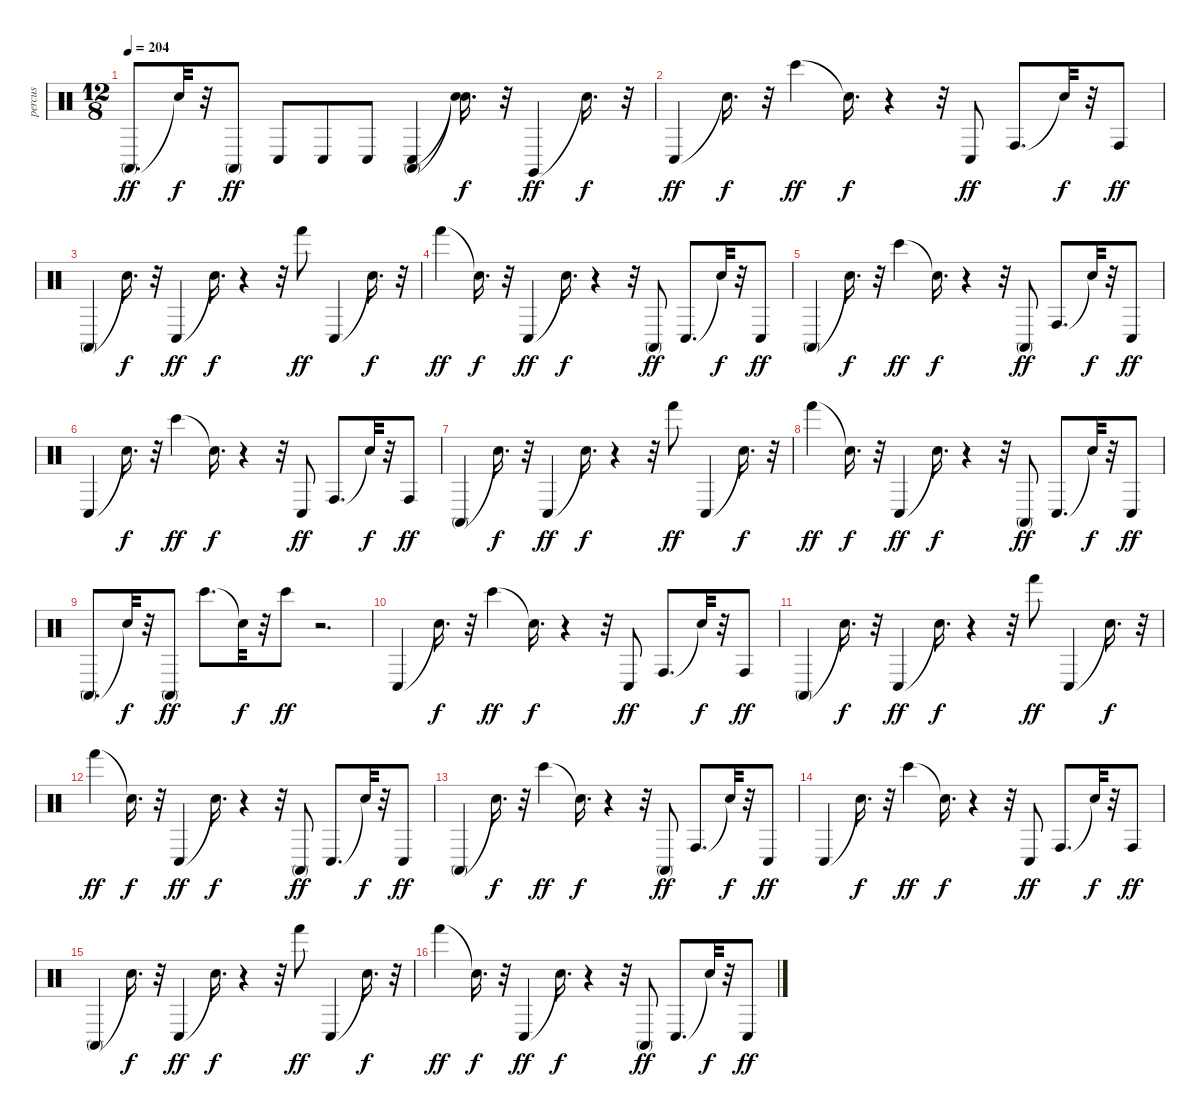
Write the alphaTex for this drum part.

\track ("percus" "percus") {instrument percussion}
\staff {score}
\articulation defaults
\ts (12 8)
\tempo 204
\clef neutral
\ks c "Conga high (mute)".8{d dy ff} "Snare (hit)"{t}.32{dy f}
r.32 "Conga high (mute)".8{dy ff} "Conga low (hit)".8 "Conga low (hit)".8 "Conga low (hit)".8 ("Conga high (mute)" "Conga low (hit)").4 ("Snare (hit)"{t} "Snare (hit)"{t}).16{d dy f} r.32 "Claves (hit)".4{dy ff} "Snare (hit)"{t}.16{d dy f} r.32 |
"Conga low (hit)".4{dy ff} "Snare (hit)"{t}.16{d dy f} r.32 "Bongo High (hit)".4{dy ff} "Snare (hit)"{t}.16{d dy f} r.4 r.32 "Conga low (hit)".8{dy ff} "Conga high (hit)".8{d} "Snare (hit)"{t}.32{dy f} r.32 "Conga high (hit)".8{dy ff} |
"Conga high (mute)".4 "Snare (hit)"{t}.16{d dy f} r.32 "Conga low (hit)".4{dy ff} "Snare (hit)"{t}.16{d dy f} r.4 r.32 "Hand (hit)".8{dy ff} "Conga low (hit)".4 "Snare (hit)"{t}.16{d dy f} r.32 |
"Hand (hit)".4{dy ff} "Snare (hit)"{t}.16{d dy f} r.32 "Conga low (hit)".4{dy ff} "Snare (hit)"{t}.16{d dy f} r.4 r.32 "Conga high (mute)".8{dy ff} "Conga low (hit)".8{d} "Snare (hit)"{t}.32{dy f} r.32 "Conga low (hit)".8{dy ff} |
"Conga high (mute)".4 "Snare (hit)"{t}.16{d dy f} r.32 "Bongo High (hit)".4{dy ff} "Snare (hit)"{t}.16{d dy f} r.4 r.32 "Conga high (mute)".8{dy ff} "Conga high (hit)".8{d} "Snare (hit)"{t}.32{dy f} r.32 "Conga low (hit)".8{dy ff} |
"Conga low (hit)".4 "Snare (hit)"{t}.16{d dy f} r.32 "Bongo High (hit)".4{dy ff} "Snare (hit)"{t}.16{d dy f} r.4 r.32 "Conga low (hit)".8{dy ff} "Conga high (hit)".8{d} "Snare (hit)"{t}.32{dy f} r.32 "Conga high (hit)".8{dy ff} |
"Conga high (mute)".4 "Snare (hit)"{t}.16{d dy f} r.32 "Conga low (hit)".4{dy ff} "Snare (hit)"{t}.16{d dy f} r.4 r.32 "Hand (hit)".8{dy ff} "Conga low (hit)".4 "Snare (hit)"{t}.16{d dy f} r.32 |
"Hand (hit)".4{dy ff} "Snare (hit)"{t}.16{d dy f} r.32 "Conga low (hit)".4{dy ff} "Snare (hit)"{t}.16{d dy f} r.4 r.32 "Conga high (mute)".8{dy ff} "Conga low (hit)".8{d} "Snare (hit)"{t}.32{dy f} r.32 "Conga low (hit)".8{dy ff} |
"Conga high (mute)".8{d} "Snare (hit)"{t}.32{dy f} r.32 "Conga high (mute)".8{dy ff} "Bongo High (hit)".8{d} "Snare (hit)"{t}.32{dy f} r.32 "Bongo High (hit)".8{dy ff} r.2{d} |
"Conga low (hit)".4 "Snare (hit)"{t}.16{d dy f} r.32 "Bongo High (hit)".4{dy ff} "Snare (hit)"{t}.16{d dy f} r.4 r.32 "Conga low (hit)".8{dy ff} "Conga high (hit)".8{d} "Snare (hit)"{t}.32{dy f} r.32 "Conga high (hit)".8{dy ff} |
"Conga high (mute)".4 "Snare (hit)"{t}.16{d dy f} r.32 "Conga low (hit)".4{dy ff} "Snare (hit)"{t}.16{d dy f} r.4 r.32 "Hand (hit)".8{dy ff} "Conga low (hit)".4 "Snare (hit)"{t}.16{d dy f} r.32 |
"Hand (hit)".4{dy ff} "Snare (hit)"{t}.16{d dy f} r.32 "Conga low (hit)".4{dy ff} "Snare (hit)"{t}.16{d dy f} r.4 r.32 "Conga high (mute)".8{dy ff} "Conga low (hit)".8{d} "Snare (hit)"{t}.32{dy f} r.32 "Conga low (hit)".8{dy ff} |
"Conga high (mute)".4 "Snare (hit)"{t}.16{d dy f} r.32 "Bongo High (hit)".4{dy ff} "Snare (hit)"{t}.16{d dy f} r.4 r.32 "Conga high (mute)".8{dy ff} "Conga high (hit)".8{d} "Snare (hit)"{t}.32{dy f} r.32 "Conga low (hit)".8{dy ff} |
"Conga low (hit)".4 "Snare (hit)"{t}.16{d dy f} r.32 "Bongo High (hit)".4{dy ff} "Snare (hit)"{t}.16{d dy f} r.4 r.32 "Conga low (hit)".8{dy ff} "Conga high (hit)".8{d} "Snare (hit)"{t}.32{dy f} r.32 "Conga high (hit)".8{dy ff} |
"Conga high (mute)".4 "Snare (hit)"{t}.16{d dy f} r.32 "Conga low (hit)".4{dy ff} "Snare (hit)"{t}.16{d dy f} r.4 r.32 "Hand (hit)".8{dy ff} "Conga low (hit)".4 "Snare (hit)"{t}.16{d dy f} r.32 |
"Hand (hit)".4{dy ff} "Snare (hit)"{t}.16{d dy f} r.32 "Conga low (hit)".4{dy ff} "Snare (hit)"{t}.16{d dy f} r.4 r.32 "Conga high (mute)".8{dy ff} "Conga low (hit)".8{d} "Snare (hit)"{t}.32{dy f} r.32 "Conga low (hit)".8{dy ff}
